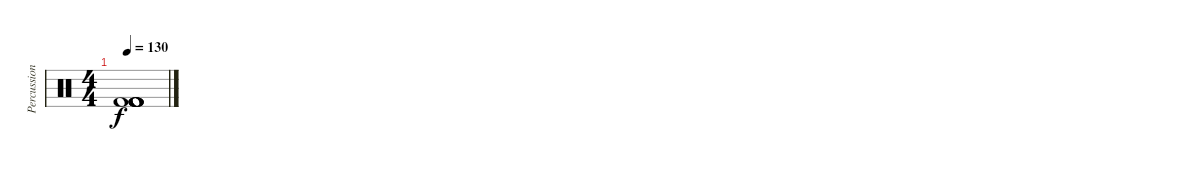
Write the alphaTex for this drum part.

\track ("Percussion" "Percussion") {instrument percussion}
\staff {score}
\articulation defaults
\ts (4 4)
\tempo 130
\clef neutral
\ks c
("Kick (hit) 2" "Kick (hit) 2" "Kick (hit) 2" "Kick (hit) 2" "Kick (hit) 2" "Kick (hit) 2").1{dy f}
